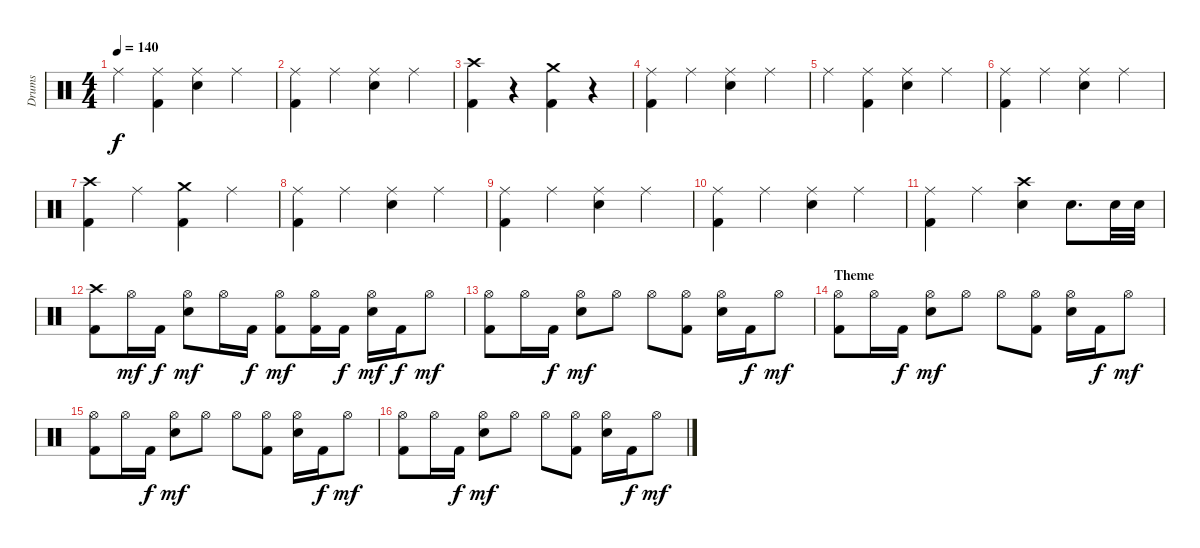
\track ("Drums" "Drums") {instrument percussion}
\staff {score}
\articulation defaults
\ts (4 4)
\tempo 140
\clef neutral
\ks c "Ride (middle)".4{dy f}
("Ride (middle)" "Kick (hit) 2").4 ("Ride (middle)" "Electric Snare (hit)").4 "Ride (middle)".4 |
("Ride (middle)" "Kick (hit) 2").4 "Ride (middle)".4 ("Ride (middle)" "Electric Snare (hit)").4 "Ride (middle)".4 |
("Crash high (hit)" "Kick (hit) 2").4 r.4 ("Crash medium (hit)" "Kick (hit) 2").4 r.4 |
("Ride (middle)" "Kick (hit) 2").4 "Ride (middle)".4 ("Ride (middle)" "Electric Snare (hit)").4 "Ride (middle)".4 |
"Ride (middle)".4 ("Ride (middle)" "Kick (hit) 2").4 ("Ride (middle)" "Electric Snare (hit)").4 "Ride (middle)".4 |
("Ride (middle)" "Kick (hit) 2").4 "Ride (middle)".4 ("Ride (middle)" "Electric Snare (hit)").4 "Ride (middle)".4 |
("Crash high (hit)" "Kick (hit) 2").4 "Ride (middle)".4 ("Crash medium (hit)" "Kick (hit) 2").4 "Ride (middle)".4 |
("Ride (middle)" "Kick (hit) 2").4 "Ride (middle)".4 ("Ride (middle)" "Electric Snare (hit)").4 "Ride (middle)".4 |
("Ride (middle)" "Kick (hit) 2").4 "Ride (middle)".4 ("Ride (middle)" "Electric Snare (hit)").4 "Ride (middle)".4 |
("Ride (middle)" "Kick (hit) 2").4 "Ride (middle)".4 ("Ride (middle)" "Electric Snare (hit)").4 "Ride (middle)".4 |
("Ride (middle)" "Kick (hit) 2").4 "Ride (middle)".4 ("Crash high (hit)" "Electric Snare (hit)").4 "Electric Snare (hit)".8{d} "Electric Snare (hit)".32 "Electric Snare (hit)".32 |
("Crash high (hit)" "Kick (hit) 2").8 "Hi-Hat (open)".16{dy mf} "Kick (hit) 2".16{dy f} ("Hi-Hat (open)" "Electric Snare (hit)").8{dy mf} "Hi-Hat (open)".16 "Kick (hit) 2".16{dy f} ("Hi-Hat (open)" "Kick (hit) 2").8{dy mf} ("Hi-Hat (open)" "Kick (hit) 2").16 "Kick (hit) 2".16{dy f} ("Hi-Hat (open)" "Electric Snare (hit)").16{dy mf} "Kick (hit) 2".16{dy f} "Hi-Hat (open)".8{dy mf} |
("Hi-Hat (open)" "Kick (hit) 2").8 "Hi-Hat (open)".16 "Kick (hit) 2".16{dy f} ("Hi-Hat (open)" "Electric Snare (hit)").8{dy mf} "Hi-Hat (open)".8 "Hi-Hat (open)".8 ("Hi-Hat (open)" "Kick (hit) 2").8 ("Hi-Hat (open)" "Electric Snare (hit)").16 "Kick (hit) 2".16{dy f} "Hi-Hat (open)".8{dy mf} |
\section ("" "Theme")
("Hi-Hat (open)" "Kick (hit) 2").8 "Hi-Hat (open)".16 "Kick (hit) 2".16{dy f} ("Hi-Hat (open)" "Electric Snare (hit)").8{dy mf} "Hi-Hat (open)".8 "Hi-Hat (open)".8 ("Hi-Hat (open)" "Kick (hit) 2").8 ("Hi-Hat (open)" "Electric Snare (hit)").16 "Kick (hit) 2".16{dy f} "Hi-Hat (open)".8{dy mf} |
("Hi-Hat (open)" "Kick (hit) 2").8 "Hi-Hat (open)".16 "Kick (hit) 2".16{dy f} ("Hi-Hat (open)" "Electric Snare (hit)").8{dy mf} "Hi-Hat (open)".8 "Hi-Hat (open)".8 ("Hi-Hat (open)" "Kick (hit) 2").8 ("Hi-Hat (open)" "Electric Snare (hit)").16 "Kick (hit) 2".16{dy f} "Hi-Hat (open)".8{dy mf} |
("Hi-Hat (open)" "Kick (hit) 2").8 "Hi-Hat (open)".16 "Kick (hit) 2".16{dy f} ("Hi-Hat (open)" "Electric Snare (hit)").8{dy mf} "Hi-Hat (open)".8 "Hi-Hat (open)".8 ("Hi-Hat (open)" "Kick (hit) 2").8 ("Hi-Hat (open)" "Electric Snare (hit)").16 "Kick (hit) 2".16{dy f} "Hi-Hat (open)".8{dy mf}
